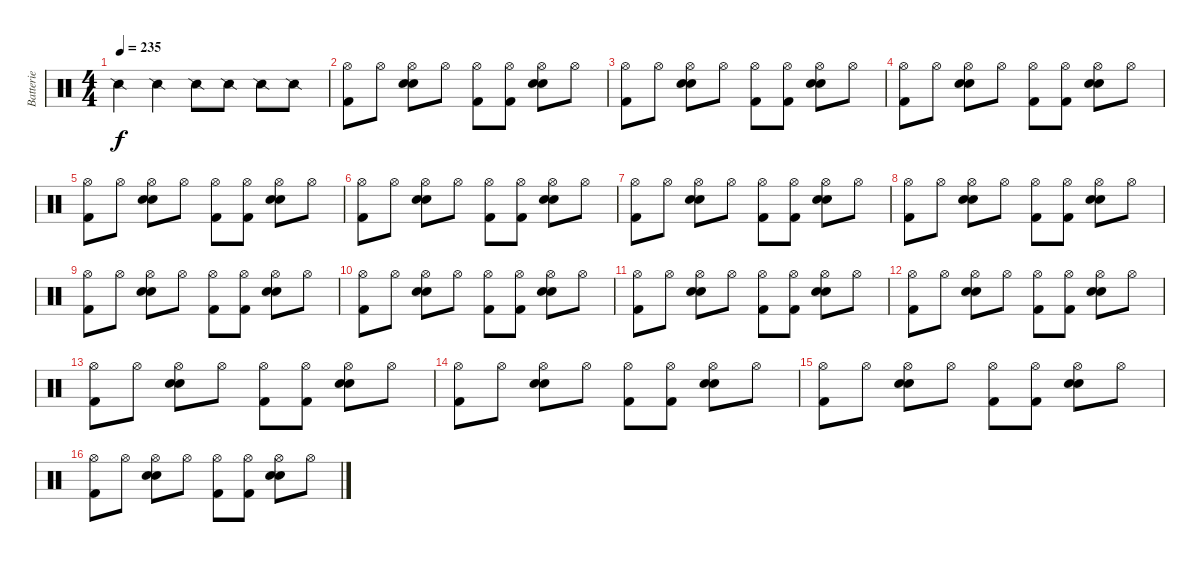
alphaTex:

\track ("Batterie" "Batterie") {instrument percussion}
\staff {score}
\articulation defaults
\ts (4 4)
\tempo 235
\clef neutral
\ks c "Snare (side stick) 2".4{dy f} "Snare (side stick) 2".4 "Snare (side stick) 2".8 "Snare (side stick) 2".8 "Snare (side stick) 2".8 "Snare (side stick) 2".8
|
("Kick (hit) 2" "Hi-Hat (open)").8 "Hi-Hat (open)".8 ("Electric Snare (hit)" "Electric Snare (hit)" "Hi-Hat (open)").8 "Hi-Hat (open)".8 ("Kick (hit) 2" "Hi-Hat (open)").8 ("Kick (hit) 2" "Hi-Hat (open)").8 ("Electric Snare (hit)" "Electric Snare (hit)" "Hi-Hat (open)").8 "Hi-Hat (open)".8 |
("Kick (hit) 2" "Hi-Hat (open)").8 "Hi-Hat (open)".8 ("Electric Snare (hit)" "Electric Snare (hit)" "Hi-Hat (open)").8 "Hi-Hat (open)".8 ("Kick (hit) 2" "Hi-Hat (open)").8 ("Kick (hit) 2" "Hi-Hat (open)").8 ("Electric Snare (hit)" "Electric Snare (hit)" "Hi-Hat (open)").8 "Hi-Hat (open)".8 |
("Kick (hit) 2" "Hi-Hat (open)").8 "Hi-Hat (open)".8 ("Electric Snare (hit)" "Electric Snare (hit)" "Hi-Hat (open)").8 "Hi-Hat (open)".8 ("Kick (hit) 2" "Hi-Hat (open)").8 ("Kick (hit) 2" "Hi-Hat (open)").8 ("Electric Snare (hit)" "Electric Snare (hit)" "Hi-Hat (open)").8 "Hi-Hat (open)".8 |
("Kick (hit) 2" "Hi-Hat (open)").8 "Hi-Hat (open)".8 ("Electric Snare (hit)" "Electric Snare (hit)" "Hi-Hat (open)").8 "Hi-Hat (open)".8 ("Kick (hit) 2" "Hi-Hat (open)").8 ("Kick (hit) 2" "Hi-Hat (open)").8 ("Electric Snare (hit)" "Electric Snare (hit)" "Hi-Hat (open)").8 "Hi-Hat (open)".8 |
("Kick (hit) 2" "Hi-Hat (open)").8 "Hi-Hat (open)".8 ("Electric Snare (hit)" "Electric Snare (hit)" "Hi-Hat (open)").8 "Hi-Hat (open)".8 ("Kick (hit) 2" "Hi-Hat (open)").8 ("Kick (hit) 2" "Hi-Hat (open)").8 ("Electric Snare (hit)" "Electric Snare (hit)" "Hi-Hat (open)").8 "Hi-Hat (open)".8 |
("Kick (hit) 2" "Hi-Hat (open)").8 "Hi-Hat (open)".8 ("Electric Snare (hit)" "Electric Snare (hit)" "Hi-Hat (open)").8 "Hi-Hat (open)".8 ("Kick (hit) 2" "Hi-Hat (open)").8 ("Kick (hit) 2" "Hi-Hat (open)").8 ("Electric Snare (hit)" "Electric Snare (hit)" "Hi-Hat (open)").8 "Hi-Hat (open)".8 |
("Kick (hit) 2" "Hi-Hat (open)").8 "Hi-Hat (open)".8 ("Electric Snare (hit)" "Electric Snare (hit)" "Hi-Hat (open)").8 "Hi-Hat (open)".8 ("Kick (hit) 2" "Hi-Hat (open)").8 ("Kick (hit) 2" "Hi-Hat (open)").8 ("Electric Snare (hit)" "Electric Snare (hit)" "Hi-Hat (open)").8 "Hi-Hat (open)".8 |
("Kick (hit) 2" "Hi-Hat (open)").8 "Hi-Hat (open)".8 ("Electric Snare (hit)" "Electric Snare (hit)" "Hi-Hat (open)").8 "Hi-Hat (open)".8 ("Kick (hit) 2" "Hi-Hat (open)").8 ("Kick (hit) 2" "Hi-Hat (open)").8 ("Electric Snare (hit)" "Electric Snare (hit)" "Hi-Hat (open)").8 "Hi-Hat (open)".8 |
("Kick (hit) 2" "Hi-Hat (open)").8 "Hi-Hat (open)".8 ("Electric Snare (hit)" "Electric Snare (hit)" "Hi-Hat (open)").8 "Hi-Hat (open)".8 ("Kick (hit) 2" "Hi-Hat (open)").8 ("Kick (hit) 2" "Hi-Hat (open)").8 ("Electric Snare (hit)" "Electric Snare (hit)" "Hi-Hat (open)").8 "Hi-Hat (open)".8 |
("Kick (hit) 2" "Hi-Hat (open)").8 "Hi-Hat (open)".8 ("Electric Snare (hit)" "Electric Snare (hit)" "Hi-Hat (open)").8 "Hi-Hat (open)".8 ("Kick (hit) 2" "Hi-Hat (open)").8 ("Kick (hit) 2" "Hi-Hat (open)").8 ("Electric Snare (hit)" "Electric Snare (hit)" "Hi-Hat (open)").8 "Hi-Hat (open)".8 |
("Kick (hit) 2" "Hi-Hat (open)").8 "Hi-Hat (open)".8 ("Electric Snare (hit)" "Electric Snare (hit)" "Hi-Hat (open)").8 "Hi-Hat (open)".8 ("Kick (hit) 2" "Hi-Hat (open)").8 ("Kick (hit) 2" "Hi-Hat (open)").8 ("Electric Snare (hit)" "Electric Snare (hit)" "Hi-Hat (open)").8 "Hi-Hat (open)".8 |
("Kick (hit) 2" "Hi-Hat (open)").8 "Hi-Hat (open)".8 ("Electric Snare (hit)" "Electric Snare (hit)" "Hi-Hat (open)").8 "Hi-Hat (open)".8 ("Kick (hit) 2" "Hi-Hat (open)").8 ("Kick (hit) 2" "Hi-Hat (open)").8 ("Electric Snare (hit)" "Electric Snare (hit)" "Hi-Hat (open)").8 "Hi-Hat (open)".8 |
("Kick (hit) 2" "Hi-Hat (open)").8 "Hi-Hat (open)".8 ("Electric Snare (hit)" "Electric Snare (hit)" "Hi-Hat (open)").8 "Hi-Hat (open)".8 ("Kick (hit) 2" "Hi-Hat (open)").8 ("Kick (hit) 2" "Hi-Hat (open)").8 ("Electric Snare (hit)" "Electric Snare (hit)" "Hi-Hat (open)").8 "Hi-Hat (open)".8 |
("Kick (hit) 2" "Hi-Hat (open)").8 "Hi-Hat (open)".8 ("Electric Snare (hit)" "Electric Snare (hit)" "Hi-Hat (open)").8 "Hi-Hat (open)".8 ("Kick (hit) 2" "Hi-Hat (open)").8 ("Kick (hit) 2" "Hi-Hat (open)").8 ("Electric Snare (hit)" "Electric Snare (hit)" "Hi-Hat (open)").8 "Hi-Hat (open)".8 |
("Kick (hit) 2" "Hi-Hat (open)").8 "Hi-Hat (open)".8 ("Electric Snare (hit)" "Electric Snare (hit)" "Hi-Hat (open)").8 "Hi-Hat (open)".8 ("Kick (hit) 2" "Hi-Hat (open)").8 ("Kick (hit) 2" "Hi-Hat (open)").8 ("Electric Snare (hit)" "Electric Snare (hit)" "Hi-Hat (open)").8 "Hi-Hat (open)".8
